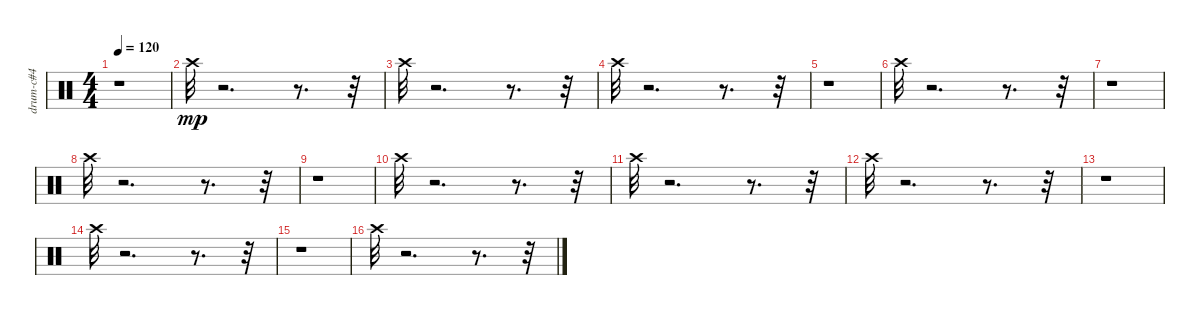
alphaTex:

\track ("drum-c#4" "drum-c#4") {instrument percussion}
\staff {score}
\articulation defaults
\ts (4 4)
\tempo 120
\clef neutral
\ks c
r.1{dy mp} |
"Crash high (hit)".32 r.2{d} r.8{d} r.32 |
"Crash high (hit)".32 r.2{d} r.8{d} r.32 |
"Crash high (hit)".32 r.2{d} r.8{d} r.32 |
r.1 |
"Crash high (hit)".32 r.2{d} r.8{d} r.32 |
r.1 |
"Crash high (hit)".32 r.2{d} r.8{d} r.32 |
r.1 |
"Crash high (hit)".32 r.2{d} r.8{d} r.32 |
"Crash high (hit)".32 r.2{d} r.8{d} r.32 |
"Crash high (hit)".32 r.2{d} r.8{d} r.32 |
r.1 |
"Crash high (hit)".32 r.2{d} r.8{d} r.32 |
r.1 |
"Crash high (hit)".32 r.2{d} r.8{d} r.32
